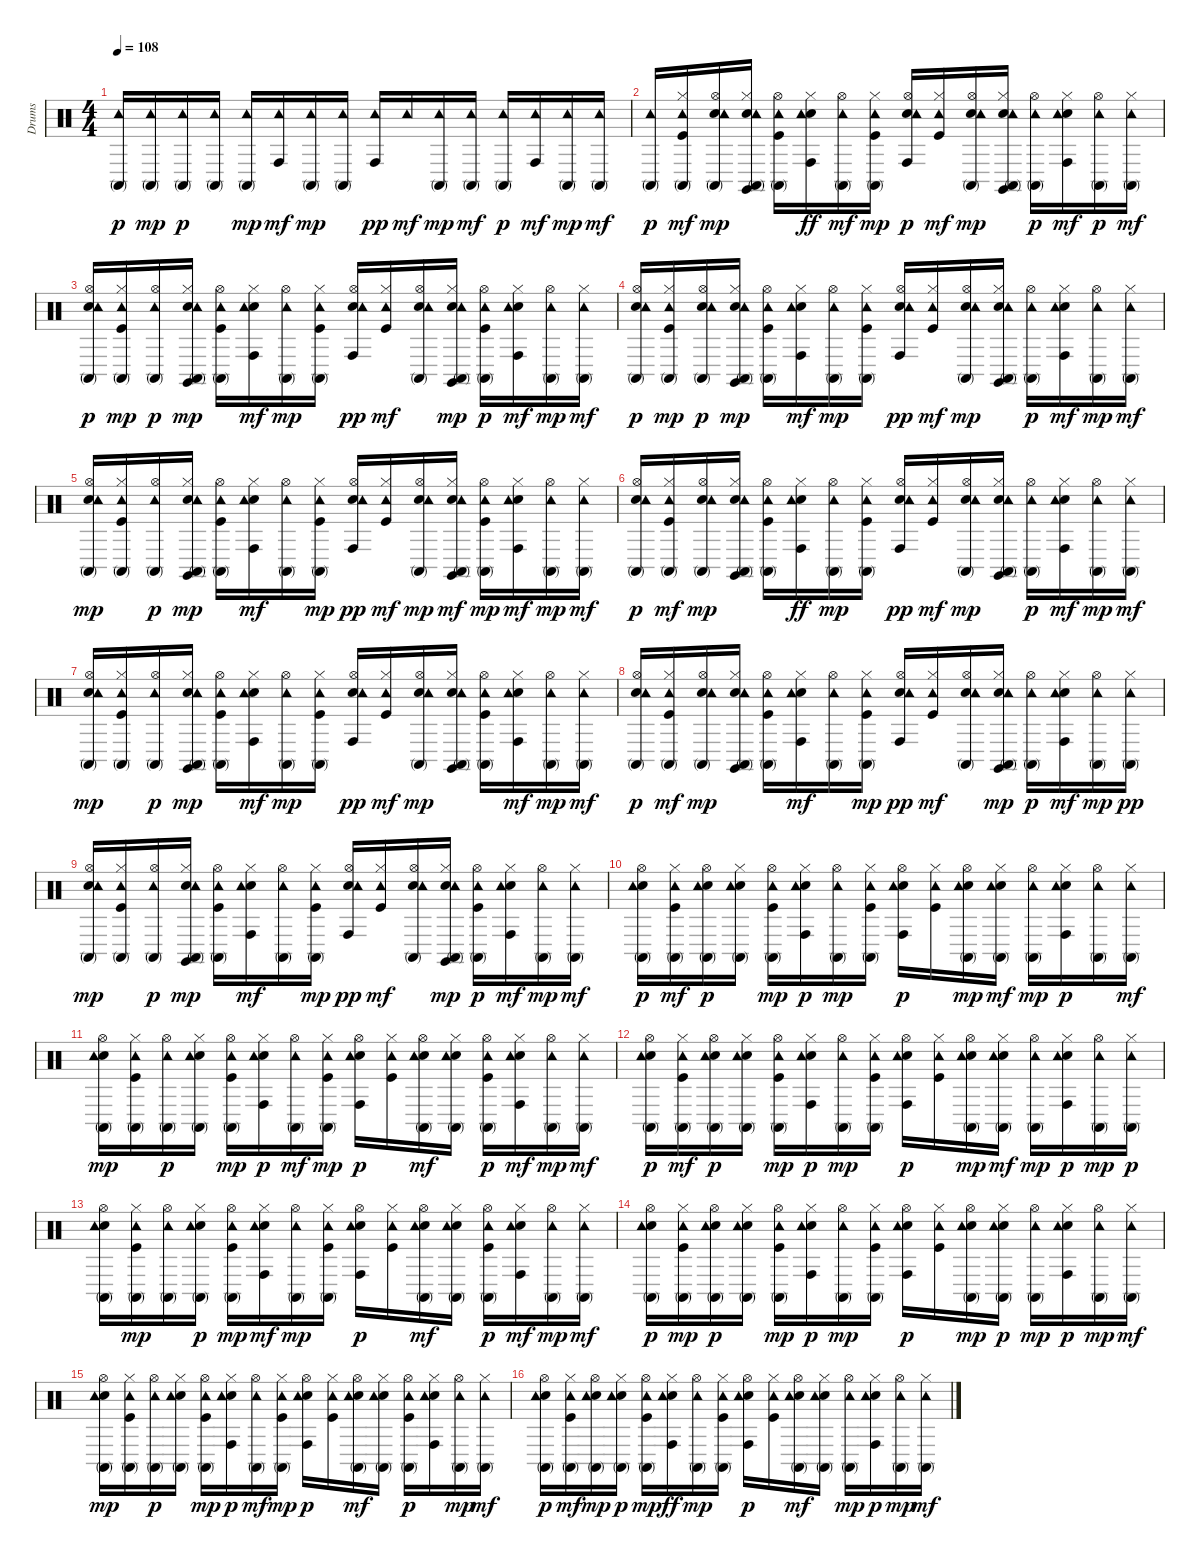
\track ("Drums" "Drums") {instrument percussion}
\staff {score}
\articulation defaults
\ts (4 4)
\tempo 108
\clef neutral
\ks c
("Tambourine (hit)" "Conga high (mute)").16{dy p} ("Tambourine (hit)" "Conga high (mute)").16{dy mp} ("Tambourine (hit)" "Conga high (mute)").16{dy p} ("Tambourine (hit)" "Conga high (mute)").16 ("Tambourine (hit)" "Conga high (mute)").16{dy mp} ("Tambourine (hit)" "Conga high (hit)").16{dy mf} ("Tambourine (hit)" "Conga high (mute)").16{dy mp} ("Tambourine (hit)" "Conga high (mute)").16 ("Tambourine (hit)" "Conga high (hit)").16{dy pp} "Tambourine (hit)".16{dy mf} ("Tambourine (hit)" "Conga high (mute)").16{dy mp} ("Tambourine (hit)" "Conga high (mute)").16{dy mf} ("Tambourine (hit)" "Conga high (mute)").16{dy p} ("Tambourine (hit)" "Conga high (hit)").16{dy mf} ("Tambourine (hit)" "Conga high (mute)").16{dy mp} ("Tambourine (hit)" "Conga high (mute)").16{dy mf} |
("Tambourine (hit)" "Conga high (mute)").16{dy p} ("Kick (hit)" "Hi-Hat (closed)" "Tambourine (hit)" "Conga high (mute)").16{dy mf} ("Snare (hit) 2" "Hi-Hat (open)" "Tambourine (hit)" "Conga high (mute)").16{dy mp} ("Snare (hit) 2" "Hi-Hat (closed)" "Tambourine (hit)" "Conga high (mute)" "Claves (hit)").16 ("Kick (hit)" "Hi-Hat (open)" "Tambourine (hit)" "Conga high (mute)").16 ("Electric Snare (hit)" "Hi-Hat (closed)" "Tambourine (hit)" "Conga high (hit)").16{dy ff} ("Hi-Hat (open)" "Tambourine (hit)" "Conga high (mute)").16{dy mf} ("Kick (hit)" "Hi-Hat (closed)" "Tambourine (hit)" "Conga high (mute)").16{dy mp} ("Snare (hit) 2" "Hi-Hat (open)" "Tambourine (hit)" "Conga high (hit)").16{dy p} ("Kick (hit)" "Hi-Hat (closed)" "Tambourine (hit)").16{dy mf} ("Snare (hit) 2" "Hi-Hat (open)" "Tambourine (hit)" "Conga high (mute)").16{dy mp} ("Snare (hit) 2" "Hi-Hat (closed)" "Tambourine (hit)" "Conga high (mute)" "Claves (hit)").16 ("Hi-Hat (open)" "Tambourine (hit)" "Conga high (mute)").16{dy p} ("Electric Snare (hit)" "Hi-Hat (closed)" "Tambourine (hit)" "Conga high (hit)").16{dy mf} ("Hi-Hat (open)" "Tambourine (hit)" "Conga high (mute)").16{dy p} ("Hi-Hat (closed)" "Tambourine (hit)" "Conga high (mute)").16{dy mf} |
("Snare (hit) 2" "Hi-Hat (open)" "Tambourine (hit)" "Conga high (mute)").16{dy p} ("Kick (hit)" "Hi-Hat (closed)" "Tambourine (hit)" "Conga high (mute)").16{dy mp} ("Hi-Hat (open)" "Tambourine (hit)" "Conga high (mute)").16{dy p} ("Snare (hit) 2" "Hi-Hat (closed)" "Tambourine (hit)" "Conga high (mute)" "Claves (hit)").16{dy mp} ("Kick (hit)" "Hi-Hat (open)" "Tambourine (hit)" "Conga high (mute)").16 ("Electric Snare (hit)" "Hi-Hat (closed)" "Tambourine (hit)" "Conga high (hit)").16{dy mf} ("Hi-Hat (open)" "Tambourine (hit)" "Conga high (mute)").16{dy mp} ("Kick (hit)" "Hi-Hat (closed)" "Tambourine (hit)" "Conga high (mute)").16 ("Snare (hit) 2" "Hi-Hat (open)" "Tambourine (hit)" "Conga high (hit)").16{dy pp} ("Kick (hit)" "Hi-Hat (closed)" "Tambourine (hit)").16{dy mf} ("Snare (hit) 2" "Hi-Hat (open)" "Tambourine (hit)" "Conga high (mute)").16 ("Snare (hit) 2" "Hi-Hat (closed)" "Tambourine (hit)" "Conga high (mute)" "Claves (hit)").16{dy mp} ("Kick (hit)" "Hi-Hat (open)" "Tambourine (hit)" "Conga high (mute)").16{dy p} ("Electric Snare (hit)" "Hi-Hat (closed)" "Tambourine (hit)" "Conga high (hit)").16{dy mf} ("Hi-Hat (open)" "Tambourine (hit)" "Conga high (mute)").16{dy mp} ("Hi-Hat (closed)" "Tambourine (hit)" "Conga high (mute)").16{dy mf} |
("Snare (hit) 2" "Hi-Hat (open)" "Tambourine (hit)" "Conga high (mute)").16{dy p} ("Kick (hit)" "Hi-Hat (closed)" "Tambourine (hit)" "Conga high (mute)").16{dy mp} ("Snare (hit) 2" "Hi-Hat (open)" "Tambourine (hit)" "Conga high (mute)").16{dy p} ("Snare (hit) 2" "Hi-Hat (closed)" "Tambourine (hit)" "Conga high (mute)" "Claves (hit)").16{dy mp} ("Kick (hit)" "Hi-Hat (open)" "Tambourine (hit)" "Conga high (mute)").16 ("Electric Snare (hit)" "Hi-Hat (closed)" "Tambourine (hit)" "Conga high (hit)").16{dy mf} ("Hi-Hat (open)" "Tambourine (hit)" "Conga high (mute)").16{dy mp} ("Kick (hit)" "Hi-Hat (closed)" "Tambourine (hit)" "Conga high (mute)").16 ("Snare (hit) 2" "Hi-Hat (open)" "Tambourine (hit)" "Conga high (hit)").16{dy pp} ("Kick (hit)" "Hi-Hat (closed)" "Tambourine (hit)").16{dy mf} ("Snare (hit) 2" "Hi-Hat (open)" "Tambourine (hit)" "Conga high (mute)").16{dy mp} ("Snare (hit) 2" "Hi-Hat (closed)" "Tambourine (hit)" "Conga high (mute)" "Claves (hit)").16 ("Hi-Hat (open)" "Tambourine (hit)" "Conga high (mute)").16{dy p} ("Electric Snare (hit)" "Hi-Hat (closed)" "Tambourine (hit)" "Conga high (hit)").16{dy mf} ("Hi-Hat (open)" "Tambourine (hit)" "Conga high (mute)").16{dy mp} ("Hi-Hat (closed)" "Tambourine (hit)" "Conga high (mute)").16{dy mf} |
("Snare (hit) 2" "Hi-Hat (open)" "Tambourine (hit)" "Conga high (mute)").16{dy mp} ("Kick (hit)" "Hi-Hat (closed)" "Tambourine (hit)" "Conga high (mute)").16 ("Hi-Hat (open)" "Tambourine (hit)" "Conga high (mute)").16{dy p} ("Snare (hit) 2" "Hi-Hat (closed)" "Tambourine (hit)" "Conga high (mute)" "Claves (hit)").16{dy mp} ("Kick (hit)" "Hi-Hat (open)" "Tambourine (hit)" "Conga high (mute)").16 ("Electric Snare (hit)" "Hi-Hat (closed)" "Tambourine (hit)" "Conga high (hit)").16{dy mf} ("Hi-Hat (open)" "Tambourine (hit)" "Conga high (mute)").16 ("Kick (hit)" "Hi-Hat (closed)" "Tambourine (hit)" "Conga high (mute)").16{dy mp} ("Snare (hit) 2" "Hi-Hat (open)" "Tambourine (hit)" "Conga high (hit)").16{dy pp} ("Kick (hit)" "Hi-Hat (closed)" "Tambourine (hit)").16{dy mf} ("Snare (hit) 2" "Hi-Hat (open)" "Tambourine (hit)" "Conga high (mute)").16{dy mp} ("Snare (hit) 2" "Hi-Hat (closed)" "Tambourine (hit)" "Conga high (mute)" "Claves (hit)").16{dy mf} ("Kick (hit)" "Hi-Hat (open)" "Tambourine (hit)" "Conga high (mute)").16{dy mp} ("Electric Snare (hit)" "Hi-Hat (closed)" "Tambourine (hit)" "Conga high (hit)").16{dy mf} ("Hi-Hat (open)" "Tambourine (hit)" "Conga high (mute)").16{dy mp} ("Hi-Hat (closed)" "Tambourine (hit)" "Conga high (mute)").16{dy mf} |
("Snare (hit) 2" "Hi-Hat (open)" "Tambourine (hit)" "Conga high (mute)").16{dy p} ("Kick (hit)" "Hi-Hat (closed)" "Tambourine (hit)" "Conga high (mute)").16{dy mf} ("Snare (hit) 2" "Hi-Hat (open)" "Tambourine (hit)" "Conga high (mute)").16{dy mp} ("Snare (hit) 2" "Hi-Hat (closed)" "Tambourine (hit)" "Conga high (mute)" "Claves (hit)").16 ("Kick (hit)" "Hi-Hat (open)" "Tambourine (hit)" "Conga high (mute)").16 ("Electric Snare (hit)" "Hi-Hat (closed)" "Tambourine (hit)" "Conga high (hit)").16{dy ff} ("Hi-Hat (open)" "Tambourine (hit)" "Conga high (mute)").16{dy mp} ("Kick (hit)" "Hi-Hat (closed)" "Tambourine (hit)" "Conga high (mute)").16 ("Snare (hit) 2" "Hi-Hat (open)" "Tambourine (hit)" "Conga high (hit)").16{dy pp} ("Kick (hit)" "Hi-Hat (closed)" "Tambourine (hit)").16{dy mf} ("Snare (hit) 2" "Hi-Hat (open)" "Tambourine (hit)" "Conga high (mute)").16{dy mp} ("Snare (hit) 2" "Hi-Hat (closed)" "Tambourine (hit)" "Conga high (mute)" "Claves (hit)").16 ("Hi-Hat (open)" "Tambourine (hit)" "Conga high (mute)").16{dy p} ("Electric Snare (hit)" "Hi-Hat (closed)" "Tambourine (hit)" "Conga high (hit)").16{dy mf} ("Hi-Hat (open)" "Tambourine (hit)" "Conga high (mute)").16{dy mp} ("Hi-Hat (closed)" "Tambourine (hit)" "Conga high (mute)").16{dy mf} |
("Snare (hit) 2" "Hi-Hat (open)" "Tambourine (hit)" "Conga high (mute)").16{dy mp} ("Kick (hit)" "Hi-Hat (closed)" "Tambourine (hit)" "Conga high (mute)").16 ("Hi-Hat (open)" "Tambourine (hit)" "Conga high (mute)").16{dy p} ("Snare (hit) 2" "Hi-Hat (closed)" "Tambourine (hit)" "Conga high (mute)" "Claves (hit)").16{dy mp} ("Kick (hit)" "Hi-Hat (open)" "Tambourine (hit)" "Conga high (mute)").16 ("Electric Snare (hit)" "Hi-Hat (closed)" "Tambourine (hit)" "Conga high (hit)").16{dy mf} ("Hi-Hat (open)" "Tambourine (hit)" "Conga high (mute)").16{dy mp} ("Kick (hit)" "Hi-Hat (closed)" "Tambourine (hit)" "Conga high (mute)").16 ("Snare (hit) 2" "Hi-Hat (open)" "Tambourine (hit)" "Conga high (hit)").16{dy pp} ("Kick (hit)" "Hi-Hat (closed)" "Tambourine (hit)").16{dy mf} ("Snare (hit) 2" "Hi-Hat (open)" "Tambourine (hit)" "Conga high (mute)").16{dy mp} ("Snare (hit) 2" "Hi-Hat (closed)" "Tambourine (hit)" "Conga high (mute)" "Claves (hit)").16 ("Kick (hit)" "Hi-Hat (open)" "Tambourine (hit)" "Conga high (mute)").16 ("Electric Snare (hit)" "Hi-Hat (closed)" "Tambourine (hit)" "Conga high (hit)").16{dy mf} ("Hi-Hat (open)" "Tambourine (hit)" "Conga high (mute)").16{dy mp} ("Hi-Hat (closed)" "Tambourine (hit)" "Conga high (mute)").16{dy mf} |
("Snare (hit) 2" "Hi-Hat (open)" "Tambourine (hit)" "Conga high (mute)").16{dy p} ("Kick (hit)" "Hi-Hat (closed)" "Tambourine (hit)" "Conga high (mute)").16{dy mf} ("Snare (hit) 2" "Hi-Hat (open)" "Tambourine (hit)" "Conga high (mute)").16{dy mp} ("Snare (hit) 2" "Hi-Hat (closed)" "Tambourine (hit)" "Conga high (mute)" "Claves (hit)").16 ("Kick (hit)" "Hi-Hat (open)" "Tambourine (hit)" "Conga high (mute)").16 ("Electric Snare (hit)" "Hi-Hat (closed)" "Tambourine (hit)" "Conga high (hit)").16{dy mf} ("Hi-Hat (open)" "Tambourine (hit)" "Conga high (mute)").16 ("Kick (hit)" "Hi-Hat (closed)" "Tambourine (hit)" "Conga high (mute)").16{dy mp} ("Snare (hit) 2" "Hi-Hat (open)" "Tambourine (hit)" "Conga high (hit)").16{dy pp} ("Kick (hit)" "Hi-Hat (closed)" "Tambourine (hit)").16{dy mf} ("Snare (hit) 2" "Hi-Hat (open)" "Tambourine (hit)" "Conga high (mute)").16 ("Snare (hit) 2" "Hi-Hat (closed)" "Tambourine (hit)" "Conga high (mute)" "Claves (hit)").16{dy mp} ("Hi-Hat (open)" "Tambourine (hit)" "Conga high (mute)").16{dy p} ("Electric Snare (hit)" "Hi-Hat (closed)" "Tambourine (hit)" "Conga high (hit)").16{dy mf} ("Hi-Hat (open)" "Tambourine (hit)" "Conga high (mute)").16{dy mp} ("Hi-Hat (closed)" "Tambourine (hit)" "Conga high (mute)").16{dy pp} |
("Snare (hit) 2" "Hi-Hat (open)" "Tambourine (hit)" "Conga high (mute)").16{dy mp} ("Kick (hit)" "Hi-Hat (closed)" "Tambourine (hit)" "Conga high (mute)").16 ("Hi-Hat (open)" "Tambourine (hit)" "Conga high (mute)").16{dy p} ("Snare (hit) 2" "Hi-Hat (closed)" "Tambourine (hit)" "Conga high (mute)" "Claves (hit)").16{dy mp} ("Kick (hit)" "Hi-Hat (open)" "Tambourine (hit)" "Conga high (mute)").16 ("Electric Snare (hit)" "Hi-Hat (closed)" "Tambourine (hit)" "Conga high (hit)").16{dy mf} ("Hi-Hat (open)" "Tambourine (hit)" "Conga high (mute)").16 ("Kick (hit)" "Hi-Hat (closed)" "Tambourine (hit)" "Conga high (mute)").16{dy mp} ("Snare (hit) 2" "Hi-Hat (open)" "Tambourine (hit)" "Conga high (hit)").16{dy pp} ("Kick (hit)" "Hi-Hat (closed)" "Tambourine (hit)").16{dy mf} ("Snare (hit) 2" "Hi-Hat (open)" "Tambourine (hit)" "Conga high (mute)").16 ("Snare (hit) 2" "Hi-Hat (closed)" "Tambourine (hit)" "Conga high (mute)" "Claves (hit)").16{dy mp} ("Kick (hit)" "Hi-Hat (open)" "Tambourine (hit)" "Conga high (mute)").16{dy p} ("Electric Snare (hit)" "Hi-Hat (closed)" "Tambourine (hit)" "Conga high (hit)").16{dy mf} ("Hi-Hat (open)" "Tambourine (hit)" "Conga high (mute)").16{dy mp} ("Hi-Hat (closed)" "Tambourine (hit)" "Conga high (mute)").16{dy mf} |
("Snare (hit) 2" "Hi-Hat (open)" "Tambourine (hit)" "Conga high (mute)").16{dy p} ("Kick (hit)" "Hi-Hat (closed)" "Tambourine (hit)" "Conga high (mute)").16{dy mf} ("Snare (hit) 2" "Hi-Hat (open)" "Tambourine (hit)" "Conga high (mute)").16{dy p} ("Snare (hit) 2" "Hi-Hat (closed)" "Tambourine (hit)" "Conga high (mute)").16 ("Kick (hit)" "Hi-Hat (open)" "Tambourine (hit)" "Conga high (mute)").16{dy mp} ("Electric Snare (hit)" "Hi-Hat (closed)" "Tambourine (hit)" "Conga high (hit)").16{dy p} ("Hi-Hat (open)" "Tambourine (hit)" "Conga high (mute)").16{dy mp} ("Kick (hit)" "Hi-Hat (closed)" "Tambourine (hit)" "Conga high (mute)").16 ("Snare (hit) 2" "Hi-Hat (open)" "Tambourine (hit)" "Conga high (hit)").16{dy p} ("Kick (hit)" "Hi-Hat (closed)" "Tambourine (hit)").16 ("Snare (hit) 2" "Hi-Hat (open)" "Tambourine (hit)" "Conga high (mute)").16{dy mp} ("Snare (hit) 2" "Hi-Hat (closed)" "Tambourine (hit)" "Conga high (mute)").16{dy mf} ("Hi-Hat (open)" "Tambourine (hit)" "Conga high (mute)").16{dy mp} ("Electric Snare (hit)" "Hi-Hat (closed)" "Tambourine (hit)" "Conga high (hit)").16{dy p} ("Hi-Hat (open)" "Tambourine (hit)" "Conga high (mute)").16 ("Hi-Hat (closed)" "Tambourine (hit)" "Conga high (mute)").16{dy mf} |
("Snare (hit) 2" "Hi-Hat (open)" "Tambourine (hit)" "Conga high (mute)").16{dy mp} ("Kick (hit)" "Hi-Hat (closed)" "Tambourine (hit)" "Conga high (mute)").16 ("Hi-Hat (open)" "Tambourine (hit)" "Conga high (mute)").16{dy p} ("Snare (hit) 2" "Hi-Hat (closed)" "Tambourine (hit)" "Conga high (mute)").16 ("Kick (hit)" "Hi-Hat (open)" "Tambourine (hit)" "Conga high (mute)").16{dy mp} ("Electric Snare (hit)" "Hi-Hat (closed)" "Tambourine (hit)" "Conga high (hit)").16{dy p} ("Hi-Hat (open)" "Tambourine (hit)" "Conga high (mute)").16{dy mf} ("Kick (hit)" "Hi-Hat (closed)" "Tambourine (hit)" "Conga high (mute)").16{dy mp} ("Snare (hit) 2" "Hi-Hat (open)" "Tambourine (hit)" "Conga high (hit)").16{dy p} ("Kick (hit)" "Hi-Hat (closed)" "Tambourine (hit)").16 ("Snare (hit) 2" "Hi-Hat (open)" "Tambourine (hit)" "Conga high (mute)").16{dy mf} ("Snare (hit) 2" "Hi-Hat (closed)" "Tambourine (hit)" "Conga high (mute)").16 ("Kick (hit)" "Hi-Hat (open)" "Tambourine (hit)" "Conga high (mute)").16{dy p} ("Electric Snare (hit)" "Hi-Hat (closed)" "Tambourine (hit)" "Conga high (hit)").16{dy mf} ("Hi-Hat (open)" "Tambourine (hit)" "Conga high (mute)").16{dy mp} ("Hi-Hat (closed)" "Tambourine (hit)" "Conga high (mute)").16{dy mf} |
("Snare (hit) 2" "Hi-Hat (open)" "Tambourine (hit)" "Conga high (mute)").16{dy p} ("Kick (hit)" "Hi-Hat (closed)" "Tambourine (hit)" "Conga high (mute)").16{dy mf} ("Snare (hit) 2" "Hi-Hat (open)" "Tambourine (hit)" "Conga high (mute)").16{dy p} ("Snare (hit) 2" "Hi-Hat (closed)" "Tambourine (hit)" "Conga high (mute)").16 ("Kick (hit)" "Hi-Hat (open)" "Tambourine (hit)" "Conga high (mute)").16{dy mp} ("Electric Snare (hit)" "Hi-Hat (closed)" "Tambourine (hit)" "Conga high (hit)").16{dy p} ("Hi-Hat (open)" "Tambourine (hit)" "Conga high (mute)").16{dy mp} ("Kick (hit)" "Hi-Hat (closed)" "Tambourine (hit)" "Conga high (mute)").16 ("Snare (hit) 2" "Hi-Hat (open)" "Tambourine (hit)" "Conga high (hit)").16{dy p} ("Kick (hit)" "Hi-Hat (closed)" "Tambourine (hit)").16 ("Snare (hit) 2" "Hi-Hat (open)" "Tambourine (hit)" "Conga high (mute)").16{dy mp} ("Snare (hit) 2" "Hi-Hat (closed)" "Tambourine (hit)" "Conga high (mute)").16{dy mf} ("Hi-Hat (open)" "Tambourine (hit)" "Conga high (mute)").16{dy mp} ("Electric Snare (hit)" "Hi-Hat (closed)" "Tambourine (hit)" "Conga high (hit)").16{dy p} ("Hi-Hat (open)" "Tambourine (hit)" "Conga high (mute)").16{dy mp} ("Hi-Hat (closed)" "Tambourine (hit)" "Conga high (mute)").16{dy p} |
("Snare (hit) 2" "Hi-Hat (open)" "Tambourine (hit)" "Conga high (mute)").16 ("Kick (hit)" "Hi-Hat (closed)" "Tambourine (hit)" "Conga high (mute)").16{dy mp} ("Hi-Hat (open)" "Tambourine (hit)" "Conga high (mute)").16 ("Snare (hit) 2" "Hi-Hat (closed)" "Tambourine (hit)" "Conga high (mute)").16{dy p} ("Kick (hit)" "Hi-Hat (open)" "Tambourine (hit)" "Conga high (mute)").16{dy mp} ("Electric Snare (hit)" "Hi-Hat (closed)" "Tambourine (hit)" "Conga high (hit)").16{dy mf} ("Hi-Hat (open)" "Tambourine (hit)" "Conga high (mute)").16{dy mp} ("Kick (hit)" "Hi-Hat (closed)" "Tambourine (hit)" "Conga high (mute)").16 ("Snare (hit) 2" "Hi-Hat (open)" "Tambourine (hit)" "Conga high (hit)").16{dy p} ("Kick (hit)" "Hi-Hat (closed)" "Tambourine (hit)").16 ("Snare (hit) 2" "Hi-Hat (open)" "Tambourine (hit)" "Conga high (mute)").16{dy mf} ("Snare (hit) 2" "Hi-Hat (closed)" "Tambourine (hit)" "Conga high (mute)").16 ("Kick (hit)" "Hi-Hat (open)" "Tambourine (hit)" "Conga high (mute)").16{dy p} ("Electric Snare (hit)" "Hi-Hat (closed)" "Tambourine (hit)" "Conga high (hit)").16{dy mf} ("Hi-Hat (open)" "Tambourine (hit)" "Conga high (mute)").16{dy mp} ("Hi-Hat (closed)" "Tambourine (hit)" "Conga high (mute)").16{dy mf} |
("Snare (hit) 2" "Hi-Hat (open)" "Tambourine (hit)" "Conga high (mute)").16{dy p} ("Kick (hit)" "Hi-Hat (closed)" "Tambourine (hit)" "Conga high (mute)").16{dy mp} ("Snare (hit) 2" "Hi-Hat (open)" "Tambourine (hit)" "Conga high (mute)").16{dy p} ("Snare (hit) 2" "Hi-Hat (closed)" "Tambourine (hit)" "Conga high (mute)").16 ("Kick (hit)" "Hi-Hat (open)" "Tambourine (hit)" "Conga high (mute)").16{dy mp} ("Electric Snare (hit)" "Hi-Hat (closed)" "Tambourine (hit)" "Conga high (hit)").16{dy p} ("Hi-Hat (open)" "Tambourine (hit)" "Conga high (mute)").16{dy mp} ("Kick (hit)" "Hi-Hat (closed)" "Tambourine (hit)" "Conga high (mute)").16 ("Snare (hit) 2" "Hi-Hat (open)" "Tambourine (hit)" "Conga high (hit)").16{dy p} ("Kick (hit)" "Hi-Hat (closed)" "Tambourine (hit)").16 ("Snare (hit) 2" "Hi-Hat (open)" "Tambourine (hit)" "Conga high (mute)").16{dy mp} ("Snare (hit) 2" "Hi-Hat (closed)" "Tambourine (hit)" "Conga high (mute)").16{dy p} ("Hi-Hat (open)" "Tambourine (hit)" "Conga high (mute)").16{dy mp} ("Electric Snare (hit)" "Hi-Hat (closed)" "Tambourine (hit)" "Conga high (hit)").16{dy p} ("Hi-Hat (open)" "Tambourine (hit)" "Conga high (mute)").16{dy mp} ("Hi-Hat (closed)" "Tambourine (hit)" "Conga high (mute)").16{dy mf} |
("Snare (hit) 2" "Hi-Hat (open)" "Tambourine (hit)" "Conga high (mute)").16{dy mp} ("Kick (hit)" "Hi-Hat (closed)" "Tambourine (hit)" "Conga high (mute)").16 ("Hi-Hat (open)" "Tambourine (hit)" "Conga high (mute)").16{dy p} ("Snare (hit) 2" "Hi-Hat (closed)" "Tambourine (hit)" "Conga high (mute)").16 ("Kick (hit)" "Hi-Hat (open)" "Tambourine (hit)" "Conga high (mute)").16{dy mp} ("Electric Snare (hit)" "Hi-Hat (closed)" "Tambourine (hit)" "Conga high (hit)").16{dy p} ("Hi-Hat (open)" "Tambourine (hit)" "Conga high (mute)").16{dy mf} ("Kick (hit)" "Hi-Hat (closed)" "Tambourine (hit)" "Conga high (mute)").16{dy mp} ("Snare (hit) 2" "Hi-Hat (open)" "Tambourine (hit)" "Conga high (hit)").16{dy p} ("Kick (hit)" "Hi-Hat (closed)" "Tambourine (hit)").16 ("Snare (hit) 2" "Hi-Hat (open)" "Tambourine (hit)" "Conga high (mute)").16{dy mf} ("Snare (hit) 2" "Hi-Hat (closed)" "Tambourine (hit)" "Conga high (mute)").16 ("Kick (hit)" "Hi-Hat (open)" "Tambourine (hit)" "Conga high (mute)").16{dy p} ("Electric Snare (hit)" "Hi-Hat (closed)" "Tambourine (hit)" "Conga high (hit)").16 ("Hi-Hat (open)" "Tambourine (hit)" "Conga high (mute)").16{dy mp} ("Hi-Hat (closed)" "Tambourine (hit)" "Conga high (mute)").16{dy mf} |
("Snare (hit) 2" "Hi-Hat (open)" "Tambourine (hit)" "Conga high (mute)").16{dy p} ("Kick (hit)" "Hi-Hat (closed)" "Tambourine (hit)" "Conga high (mute)").16{dy mf} ("Snare (hit) 2" "Hi-Hat (open)" "Tambourine (hit)" "Conga high (mute)").16{dy mp} ("Snare (hit) 2" "Hi-Hat (closed)" "Tambourine (hit)" "Conga high (mute)").16{dy p} ("Kick (hit)" "Hi-Hat (open)" "Tambourine (hit)" "Conga high (mute)").16{dy mp} ("Electric Snare (hit)" "Hi-Hat (closed)" "Tambourine (hit)" "Conga high (hit)").16{dy ff} ("Hi-Hat (open)" "Tambourine (hit)" "Conga high (mute)").16{dy mp} ("Kick (hit)" "Hi-Hat (closed)" "Tambourine (hit)" "Conga high (mute)").16 ("Snare (hit) 2" "Hi-Hat (open)" "Tambourine (hit)" "Conga high (hit)").16{dy p} ("Kick (hit)" "Hi-Hat (closed)" "Tambourine (hit)").16 ("Snare (hit) 2" "Hi-Hat (open)" "Tambourine (hit)" "Conga high (mute)").16{dy mf} ("Snare (hit) 2" "Hi-Hat (closed)" "Tambourine (hit)" "Conga high (mute)").16 ("Hi-Hat (open)" "Tambourine (hit)" "Conga high (mute)").16{dy mp} ("Electric Snare (hit)" "Hi-Hat (closed)" "Tambourine (hit)" "Conga high (hit)").16{dy p} ("Hi-Hat (open)" "Tambourine (hit)" "Conga high (mute)").16{dy mp} ("Hi-Hat (closed)" "Tambourine (hit)" "Conga high (mute)").16{dy mf}
